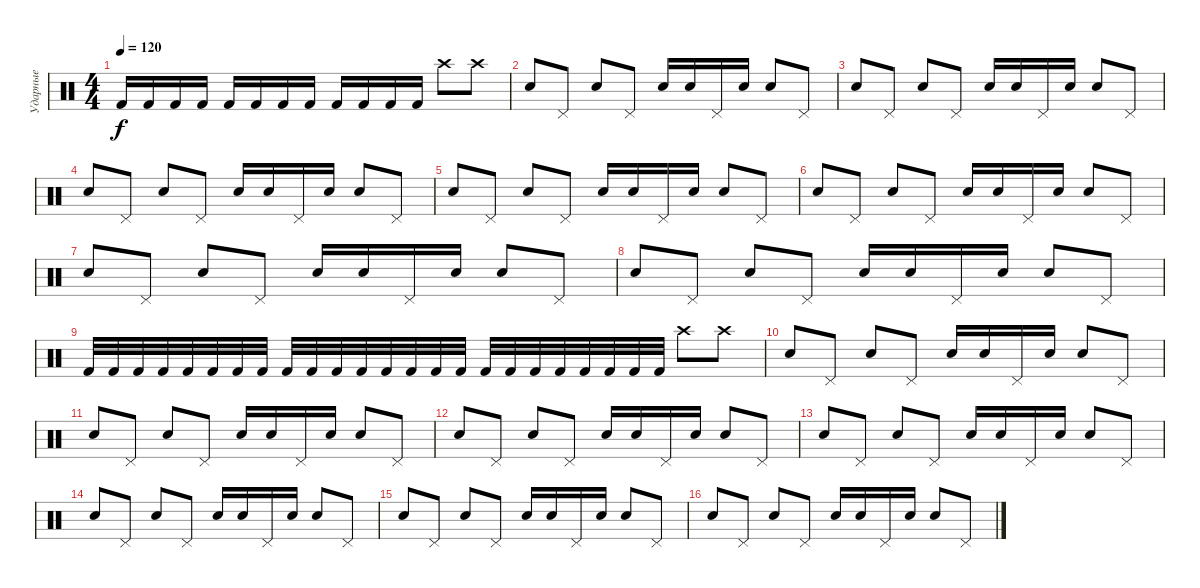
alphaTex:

\track ("Ударные" "Ударные") {instrument percussion}
\staff {score}
\articulation defaults
\ts (4 4)
\tempo 120
\clef neutral
\ks c "Kick (hit) 2".16{dy f} "Kick (hit) 2".16 "Kick (hit) 2".16 "Kick (hit) 2".16 "Kick (hit) 2".16 "Kick (hit) 2".16 "Kick (hit) 2".16 "Kick (hit) 2".16 "Kick (hit) 2".16 "Kick (hit) 2".16 "Kick (hit) 2".16 "Kick (hit) 2".16 "Crash high (hit)".8 "Crash high (hit)".8
|
"Snare (hit) 2".8 "Pedal Hi-Hat (hit)".8 "Snare (hit) 2".8 "Pedal Hi-Hat (hit)".8 "Snare (hit) 2".16 "Snare (hit) 2".16 "Pedal Hi-Hat (hit)".16 "Snare (hit) 2".16 "Snare (hit) 2".8 "Pedal Hi-Hat (hit)".8 |
"Snare (hit) 2".8 "Pedal Hi-Hat (hit)".8 "Snare (hit) 2".8 "Pedal Hi-Hat (hit)".8 "Snare (hit) 2".16 "Snare (hit) 2".16 "Pedal Hi-Hat (hit)".16 "Snare (hit) 2".16 "Snare (hit) 2".8 "Pedal Hi-Hat (hit)".8 |
"Snare (hit) 2".8 "Pedal Hi-Hat (hit)".8 "Snare (hit) 2".8 "Pedal Hi-Hat (hit)".8 "Snare (hit) 2".16 "Snare (hit) 2".16 "Pedal Hi-Hat (hit)".16 "Snare (hit) 2".16 "Snare (hit) 2".8 "Pedal Hi-Hat (hit)".8 |
"Snare (hit) 2".8 "Pedal Hi-Hat (hit)".8 "Snare (hit) 2".8 "Pedal Hi-Hat (hit)".8 "Snare (hit) 2".16 "Snare (hit) 2".16 "Pedal Hi-Hat (hit)".16 "Snare (hit) 2".16 "Snare (hit) 2".8 "Pedal Hi-Hat (hit)".8 |
"Snare (hit) 2".8 "Pedal Hi-Hat (hit)".8 "Snare (hit) 2".8 "Pedal Hi-Hat (hit)".8 "Snare (hit) 2".16 "Snare (hit) 2".16 "Pedal Hi-Hat (hit)".16 "Snare (hit) 2".16 "Snare (hit) 2".8 "Pedal Hi-Hat (hit)".8 |
"Snare (hit) 2".8 "Pedal Hi-Hat (hit)".8 "Snare (hit) 2".8 "Pedal Hi-Hat (hit)".8 "Snare (hit) 2".16 "Snare (hit) 2".16 "Pedal Hi-Hat (hit)".16 "Snare (hit) 2".16 "Snare (hit) 2".8 "Pedal Hi-Hat (hit)".8 |
"Snare (hit) 2".8 "Pedal Hi-Hat (hit)".8 "Snare (hit) 2".8 "Pedal Hi-Hat (hit)".8 "Snare (hit) 2".16 "Snare (hit) 2".16 "Pedal Hi-Hat (hit)".16 "Snare (hit) 2".16 "Snare (hit) 2".8 "Pedal Hi-Hat (hit)".8 |
"Kick (hit) 2".32 "Kick (hit) 2".32 "Kick (hit) 2".32 "Kick (hit) 2".32 "Kick (hit) 2".32 "Kick (hit) 2".32 "Kick (hit) 2".32 "Kick (hit) 2".32 "Kick (hit) 2".32 "Kick (hit) 2".32 "Kick (hit) 2".32 "Kick (hit) 2".32 "Kick (hit) 2".32 "Kick (hit) 2".32 "Kick (hit) 2".32 "Kick (hit) 2".32 "Kick (hit) 2".32 "Kick (hit) 2".32 "Kick (hit) 2".32 "Kick (hit) 2".32 "Kick (hit) 2".32 "Kick (hit) 2".32 "Kick (hit) 2".32 "Kick (hit) 2".32 "Crash high (hit)".8 "Crash high (hit)".8 |
"Snare (hit) 2".8 "Pedal Hi-Hat (hit)".8 "Snare (hit) 2".8 "Pedal Hi-Hat (hit)".8 "Snare (hit) 2".16 "Snare (hit) 2".16 "Pedal Hi-Hat (hit)".16 "Snare (hit) 2".16 "Snare (hit) 2".8 "Pedal Hi-Hat (hit)".8 |
"Snare (hit) 2".8 "Pedal Hi-Hat (hit)".8 "Snare (hit) 2".8 "Pedal Hi-Hat (hit)".8 "Snare (hit) 2".16 "Snare (hit) 2".16 "Pedal Hi-Hat (hit)".16 "Snare (hit) 2".16 "Snare (hit) 2".8 "Pedal Hi-Hat (hit)".8 |
"Snare (hit) 2".8 "Pedal Hi-Hat (hit)".8 "Snare (hit) 2".8 "Pedal Hi-Hat (hit)".8 "Snare (hit) 2".16 "Snare (hit) 2".16 "Pedal Hi-Hat (hit)".16 "Snare (hit) 2".16 "Snare (hit) 2".8 "Pedal Hi-Hat (hit)".8 |
"Snare (hit) 2".8 "Pedal Hi-Hat (hit)".8 "Snare (hit) 2".8 "Pedal Hi-Hat (hit)".8 "Snare (hit) 2".16 "Snare (hit) 2".16 "Pedal Hi-Hat (hit)".16 "Snare (hit) 2".16 "Snare (hit) 2".8 "Pedal Hi-Hat (hit)".8 |
"Snare (hit) 2".8 "Pedal Hi-Hat (hit)".8 "Snare (hit) 2".8 "Pedal Hi-Hat (hit)".8 "Snare (hit) 2".16 "Snare (hit) 2".16 "Pedal Hi-Hat (hit)".16 "Snare (hit) 2".16 "Snare (hit) 2".8 "Pedal Hi-Hat (hit)".8 |
"Snare (hit) 2".8 "Pedal Hi-Hat (hit)".8 "Snare (hit) 2".8 "Pedal Hi-Hat (hit)".8 "Snare (hit) 2".16 "Snare (hit) 2".16 "Pedal Hi-Hat (hit)".16 "Snare (hit) 2".16 "Snare (hit) 2".8 "Pedal Hi-Hat (hit)".8 |
"Snare (hit) 2".8 "Pedal Hi-Hat (hit)".8 "Snare (hit) 2".8 "Pedal Hi-Hat (hit)".8 "Snare (hit) 2".16 "Snare (hit) 2".16 "Pedal Hi-Hat (hit)".16 "Snare (hit) 2".16 "Snare (hit) 2".8 "Pedal Hi-Hat (hit)".8
